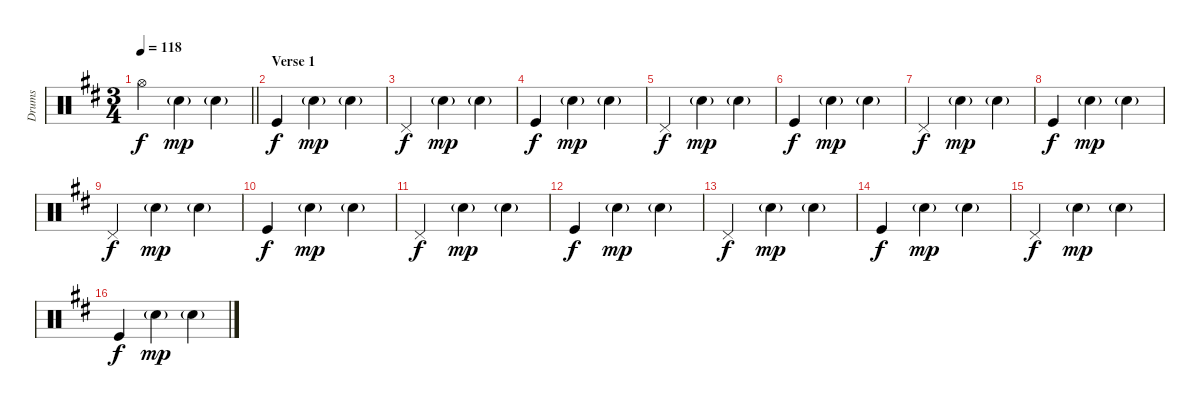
\track ("Drums" "Drums") {instrument percussion}
\staff {score}
\articulation defaults
\ts (3 4)
\tempo 118
\clef neutral
\barLineRight lightlight
\ks d "Hi-Hat (open)".4{dy f} "Snare (hit) 2"{g}.4{dy mp} "Snare (hit) 2"{g}.4
|
\section ("" "Verse 1")
"Kick (hit)".4{dy f} "Snare (hit) 2"{g}.4{dy mp} "Snare (hit) 2"{g}.4 |
"Pedal Hi-Hat (hit)".4{dy f} "Snare (hit) 2"{g}.4{dy mp} "Snare (hit) 2"{g}.4 |
"Kick (hit)".4{dy f} "Snare (hit) 2"{g}.4{dy mp} "Snare (hit) 2"{g}.4 |
"Pedal Hi-Hat (hit)".4{dy f} "Snare (hit) 2"{g}.4{dy mp} "Snare (hit) 2"{g}.4 |
"Kick (hit)".4{dy f} "Snare (hit) 2"{g}.4{dy mp} "Snare (hit) 2"{g}.4 |
"Pedal Hi-Hat (hit)".4{dy f} "Snare (hit) 2"{g}.4{dy mp} "Snare (hit) 2"{g}.4 |
"Kick (hit)".4{dy f} "Snare (hit) 2"{g}.4{dy mp} "Snare (hit) 2"{g}.4 |
"Pedal Hi-Hat (hit)".4{dy f} "Snare (hit) 2"{g}.4{dy mp} "Snare (hit) 2"{g}.4 |
"Kick (hit)".4{dy f} "Snare (hit) 2"{g}.4{dy mp} "Snare (hit) 2"{g}.4 |
"Pedal Hi-Hat (hit)".4{dy f} "Snare (hit) 2"{g}.4{dy mp} "Snare (hit) 2"{g}.4 |
"Kick (hit)".4{dy f} "Snare (hit) 2"{g}.4{dy mp} "Snare (hit) 2"{g}.4 |
"Pedal Hi-Hat (hit)".4{dy f} "Snare (hit) 2"{g}.4{dy mp} "Snare (hit) 2"{g}.4 |
"Kick (hit)".4{dy f} "Snare (hit) 2"{g}.4{dy mp} "Snare (hit) 2"{g}.4 |
"Pedal Hi-Hat (hit)".4{dy f} "Snare (hit) 2"{g}.4{dy mp} "Snare (hit) 2"{g}.4 |
"Kick (hit)".4{dy f} "Snare (hit) 2"{g}.4{dy mp} "Snare (hit) 2"{g}.4
